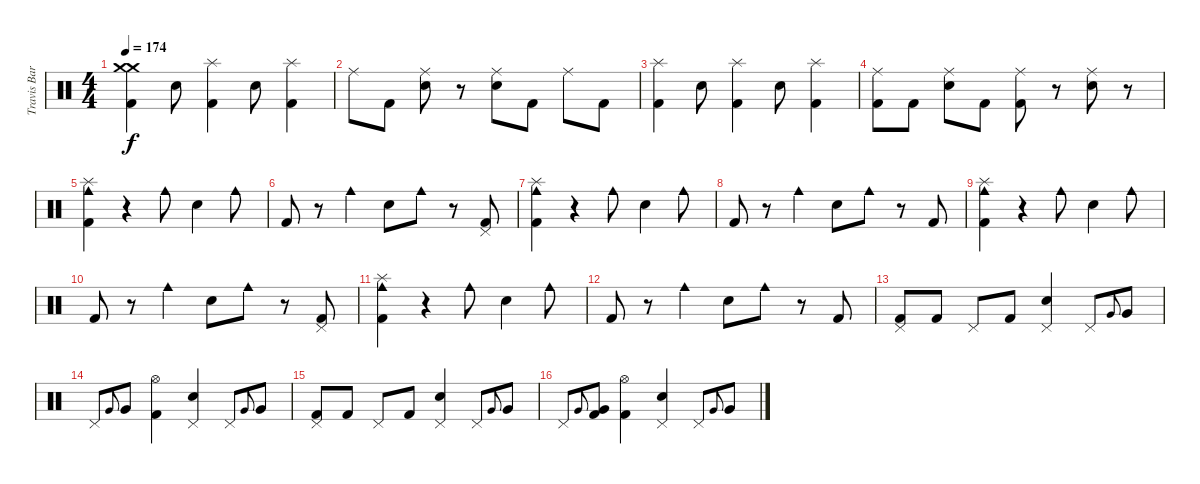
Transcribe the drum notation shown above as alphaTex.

\track ("Travis Barker - Drums" "Travis Bar") {instrument percussion}
\staff {score}
\articulation defaults
\ts (4 4)
\tempo 174
\clef neutral
\ks c
("Crash medium (hit)" "Crash medium (hit)" "Kick (hit) 2").4{dy f} "Electric Snare (hit)".8 ("Splash (hit)" "Kick (hit) 2").4 "Electric Snare (hit)".8 ("Splash (hit)" "Kick (hit) 2").4 |
"Ride (middle)".8 "Kick (hit) 2".8 ("Ride (middle)" "Electric Snare (hit)").8 r.8 ("Ride (middle)" "Electric Snare (hit)").8 "Kick (hit) 2".8 "Ride (middle)".8 "Kick (hit) 2".8 |
("Splash (hit)" "Kick (hit) 2").4 "Electric Snare (hit)".8 ("Splash (hit)" "Kick (hit) 2").4 "Electric Snare (hit)".8 ("Splash (hit)" "Kick (hit) 2").4 |
("Ride (middle)" "Kick (hit) 2").8 "Kick (hit) 2".8 ("Ride (middle)" "Electric Snare (hit)").8 "Kick (hit) 2".8 ("Ride (middle)" "Kick (hit) 2").8 r.8 ("Ride (middle)" "Electric Snare (hit)").8 r.8 |
("Splash (hit)" "Cowbell medium (hit)" "Kick (hit) 2").4 r.4 "Cowbell medium (hit)".8 "Electric Snare (hit)".4 "Cowbell medium (hit)".8 |
"Kick (hit) 2".8 r.8 "Cowbell medium (hit)".4 "Electric Snare (hit)".8 "Cowbell medium (hit)".8 r.8 ("Pedal Hi-Hat (hit)" "Kick (hit) 2").8 |
("Splash (hit)" "Cowbell medium (hit)" "Kick (hit) 2").4 r.4 "Cowbell medium (hit)".8 "Electric Snare (hit)".4 "Cowbell medium (hit)".8 |
"Kick (hit) 2".8 r.8 "Cowbell medium (hit)".4 "Electric Snare (hit)".8 "Cowbell medium (hit)".8 r.8 "Kick (hit) 2".8 |
("Splash (hit)" "Cowbell medium (hit)" "Kick (hit) 2").4 r.4 "Cowbell medium (hit)".8 "Electric Snare (hit)".4 "Cowbell medium (hit)".8 |
"Kick (hit) 2".8 r.8 "Cowbell medium (hit)".4 "Electric Snare (hit)".8 "Cowbell medium (hit)".8 r.8 ("Pedal Hi-Hat (hit)" "Kick (hit) 2").8 |
("Splash (hit)" "Cowbell medium (hit)" "Kick (hit) 2").4 r.4 "Cowbell medium (hit)".8 "Electric Snare (hit)".4 "Cowbell medium (hit)".8 |
"Kick (hit) 2".8 r.8 "Cowbell medium (hit)".4 "Electric Snare (hit)".8 "Cowbell medium (hit)".8 r.8 "Kick (hit) 2".8 |
("Pedal Hi-Hat (hit)" "Kick (hit) 2").8 "Kick (hit) 2".8 "Pedal Hi-Hat (hit)".8 "Kick (hit) 2".8 ("Pedal Hi-Hat (hit)" "Electric Snare (hit)").4 "Pedal Hi-Hat (hit)".8 "Very Low Tom (hit)".8{gr onbeat} "Very Low Tom (hit)".8 |
"Pedal Hi-Hat (hit)".8 "Very Low Tom (hit)".8{gr onbeat} "Very Low Tom (hit)".8 ("Hi-Hat (open)" "Kick (hit) 2").4 ("Pedal Hi-Hat (hit)" "Electric Snare (hit)").4 "Pedal Hi-Hat (hit)".8 "Very Low Tom (hit)".8{gr onbeat} "Very Low Tom (hit)".8 |
("Pedal Hi-Hat (hit)" "Kick (hit) 2").8 "Kick (hit) 2".8 "Pedal Hi-Hat (hit)".8 "Kick (hit) 2".8 ("Pedal Hi-Hat (hit)" "Electric Snare (hit)").4 "Pedal Hi-Hat (hit)".8 "Very Low Tom (hit)".8{gr onbeat} "Very Low Tom (hit)".8 |
"Pedal Hi-Hat (hit)".8 "Very Low Tom (hit)".8{gr onbeat} ("Very Low Tom (hit)" "Kick (hit) 2").8 ("Hi-Hat (open)" "Kick (hit) 2").4 ("Pedal Hi-Hat (hit)" "Electric Snare (hit)").4 "Pedal Hi-Hat (hit)".8 "Very Low Tom (hit)".8{gr onbeat} "Very Low Tom (hit)".8
